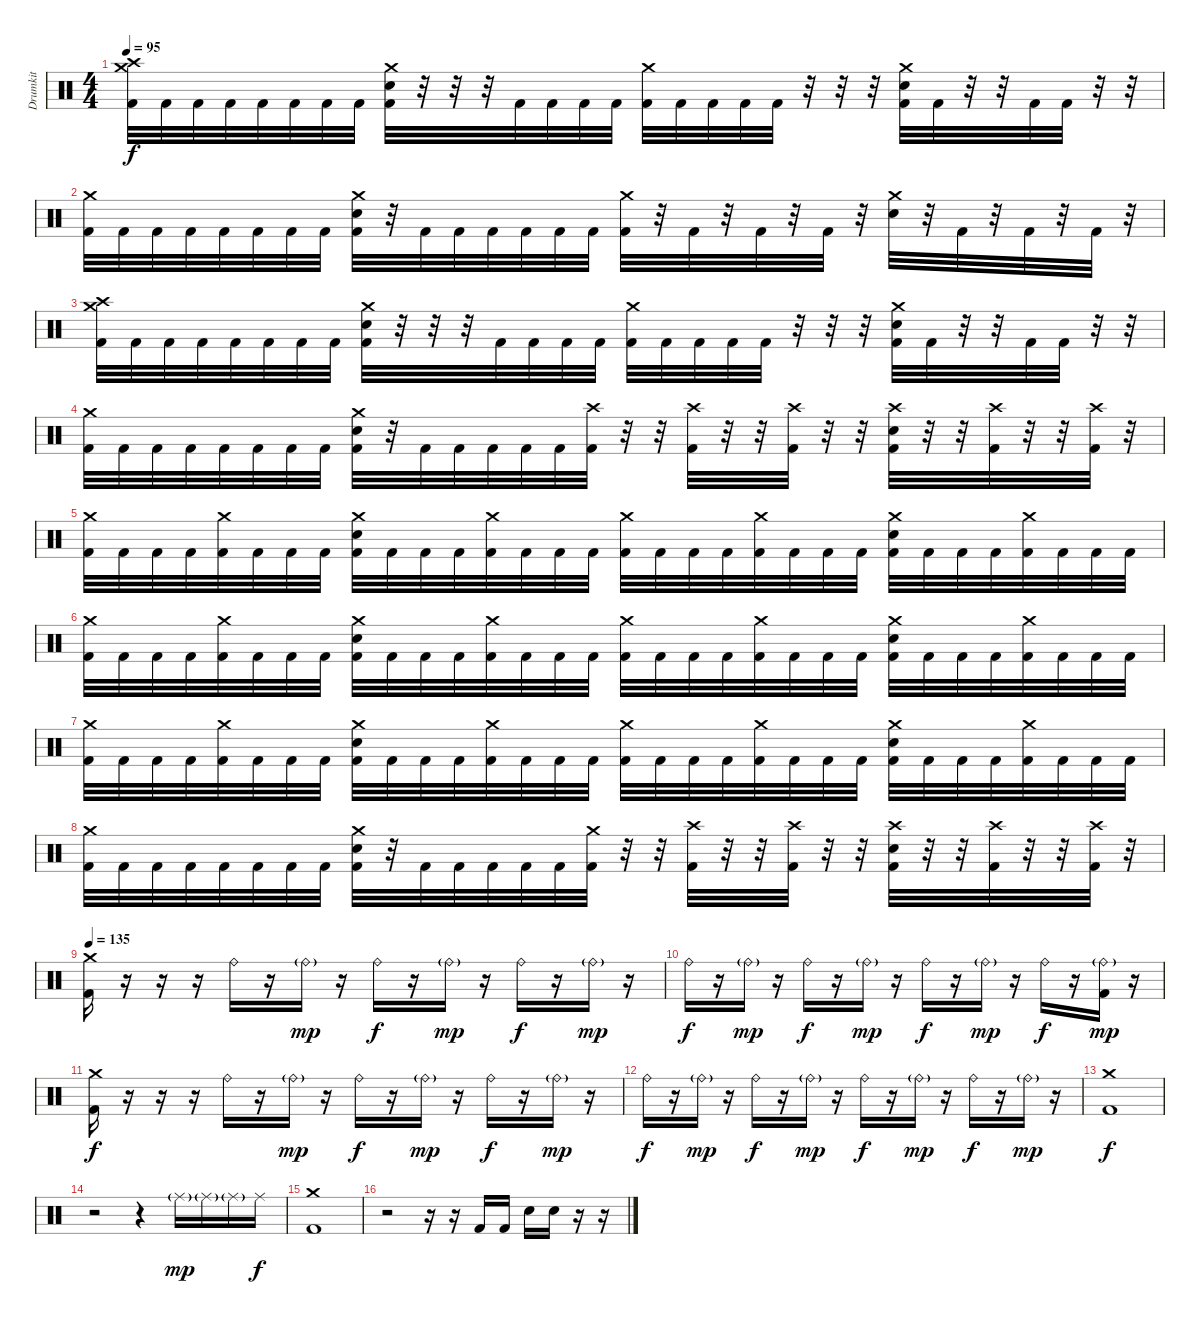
\track ("Drumkit" "Drumkit") {instrument percussion}
\staff {score}
\articulation defaults
\ts (4 4)
\tempo 95
\clef neutral
\ks c
("Crash medium (hit)" "Crash high (hit)" "Kick (hit) 2").32{dy f} "Kick (hit) 2".32 "Kick (hit) 2".32 "Kick (hit) 2".32 "Kick (hit) 2".32 "Kick (hit) 2".32 "Kick (hit) 2".32 "Kick (hit) 2".32 ("Crash medium (hit)" "Electric Snare (hit)" "Kick (hit) 2").32 r.32 r.32 r.32 "Kick (hit) 2".32 "Kick (hit) 2".32 "Kick (hit) 2".32 "Kick (hit) 2".32 ("Crash medium (hit)" "Kick (hit) 2").32 "Kick (hit) 2".32 "Kick (hit) 2".32 "Kick (hit) 2".32 "Kick (hit) 2".32 r.32 r.32 r.32 ("Crash medium (hit)" "Electric Snare (hit)" "Kick (hit) 2").32 "Kick (hit) 2".32 r.32 r.32 "Kick (hit) 2".32 "Kick (hit) 2".32 r.32 r.32 |
("Crash medium (hit)" "Kick (hit) 2").32 "Kick (hit) 2".32 "Kick (hit) 2".32 "Kick (hit) 2".32 "Kick (hit) 2".32 "Kick (hit) 2".32 "Kick (hit) 2".32 "Kick (hit) 2".32 ("Crash medium (hit)" "Electric Snare (hit)" "Kick (hit) 2").32 r.32 "Kick (hit) 2".32 "Kick (hit) 2".32 "Kick (hit) 2".32 "Kick (hit) 2".32 "Kick (hit) 2".32 "Kick (hit) 2".32 ("Crash medium (hit)" "Kick (hit) 2").32 r.32 "Kick (hit) 2".32 r.32 "Kick (hit) 2".32 r.32 "Kick (hit) 2".32 r.32 ("Crash medium (hit)" "Electric Snare (hit)").32 r.32 "Kick (hit) 2".32 r.32 "Kick (hit) 2".32 r.32 "Kick (hit) 2".32 r.32 |
("Crash medium (hit)" "Crash high (hit)" "Kick (hit) 2").32 "Kick (hit) 2".32 "Kick (hit) 2".32 "Kick (hit) 2".32 "Kick (hit) 2".32 "Kick (hit) 2".32 "Kick (hit) 2".32 "Kick (hit) 2".32 ("Crash medium (hit)" "Electric Snare (hit)" "Kick (hit) 2").32 r.32 r.32 r.32 "Kick (hit) 2".32 "Kick (hit) 2".32 "Kick (hit) 2".32 "Kick (hit) 2".32 ("Crash medium (hit)" "Kick (hit) 2").32 "Kick (hit) 2".32 "Kick (hit) 2".32 "Kick (hit) 2".32 "Kick (hit) 2".32 r.32 r.32 r.32 ("Crash medium (hit)" "Electric Snare (hit)" "Kick (hit) 2").32 "Kick (hit) 2".32 r.32 r.32 "Kick (hit) 2".32 "Kick (hit) 2".32 r.32 r.32 |
("Crash medium (hit)" "Kick (hit) 2").32 "Kick (hit) 2".32 "Kick (hit) 2".32 "Kick (hit) 2".32 "Kick (hit) 2".32 "Kick (hit) 2".32 "Kick (hit) 2".32 "Kick (hit) 2".32 ("Crash medium (hit)" "Electric Snare (hit)" "Kick (hit) 2").32 r.32 "Kick (hit) 2".32 "Kick (hit) 2".32 "Kick (hit) 2".32 "Kick (hit) 2".32 "Kick (hit) 2".32 ("Crash high (hit)" "Kick (hit) 2").32 r.32 r.32 ("Crash high (hit)" "Kick (hit) 2").32 r.32 r.32 ("Crash high (hit)" "Kick (hit) 2").32 r.32 r.32 ("Crash high (hit)" "Electric Snare (hit)" "Kick (hit) 2").32 r.32 r.32 ("Crash high (hit)" "Kick (hit) 2").32 r.32 r.32 ("Crash high (hit)" "Kick (hit) 2").32 r.32 |
("Crash medium (hit)" "Kick (hit) 2").32 "Kick (hit) 2".32 "Kick (hit) 2".32 "Kick (hit) 2".32 ("Crash medium (hit)" "Kick (hit) 2").32 "Kick (hit) 2".32 "Kick (hit) 2".32 "Kick (hit) 2".32 ("Crash medium (hit)" "Electric Snare (hit)" "Kick (hit) 2").32 "Kick (hit) 2".32 "Kick (hit) 2".32 "Kick (hit) 2".32 ("Crash medium (hit)" "Kick (hit) 2").32 "Kick (hit) 2".32 "Kick (hit) 2".32 "Kick (hit) 2".32 ("Crash medium (hit)" "Kick (hit) 2").32 "Kick (hit) 2".32 "Kick (hit) 2".32 "Kick (hit) 2".32 ("Crash medium (hit)" "Kick (hit) 2").32 "Kick (hit) 2".32 "Kick (hit) 2".32 "Kick (hit) 2".32 ("Crash medium (hit)" "Electric Snare (hit)" "Kick (hit) 2").32 "Kick (hit) 2".32 "Kick (hit) 2".32 "Kick (hit) 2".32 ("Crash medium (hit)" "Kick (hit) 2").32 "Kick (hit) 2".32 "Kick (hit) 2".32 "Kick (hit) 2".32 |
("Crash medium (hit)" "Kick (hit) 2").32 "Kick (hit) 2".32 "Kick (hit) 2".32 "Kick (hit) 2".32 ("Crash medium (hit)" "Kick (hit) 2").32 "Kick (hit) 2".32 "Kick (hit) 2".32 "Kick (hit) 2".32 ("Crash medium (hit)" "Electric Snare (hit)" "Kick (hit) 2").32 "Kick (hit) 2".32 "Kick (hit) 2".32 "Kick (hit) 2".32 ("Crash medium (hit)" "Kick (hit) 2").32 "Kick (hit) 2".32 "Kick (hit) 2".32 "Kick (hit) 2".32 ("Crash medium (hit)" "Kick (hit) 2").32 "Kick (hit) 2".32 "Kick (hit) 2".32 "Kick (hit) 2".32 ("Crash medium (hit)" "Kick (hit) 2").32 "Kick (hit) 2".32 "Kick (hit) 2".32 "Kick (hit) 2".32 ("Crash medium (hit)" "Electric Snare (hit)" "Kick (hit) 2").32 "Kick (hit) 2".32 "Kick (hit) 2".32 "Kick (hit) 2".32 ("Crash medium (hit)" "Kick (hit) 2").32 "Kick (hit) 2".32 "Kick (hit) 2".32 "Kick (hit) 2".32 |
("Crash medium (hit)" "Kick (hit) 2").32 "Kick (hit) 2".32 "Kick (hit) 2".32 "Kick (hit) 2".32 ("Crash medium (hit)" "Kick (hit) 2").32 "Kick (hit) 2".32 "Kick (hit) 2".32 "Kick (hit) 2".32 ("Crash medium (hit)" "Electric Snare (hit)" "Kick (hit) 2").32 "Kick (hit) 2".32 "Kick (hit) 2".32 "Kick (hit) 2".32 ("Crash medium (hit)" "Kick (hit) 2").32 "Kick (hit) 2".32 "Kick (hit) 2".32 "Kick (hit) 2".32 ("Crash medium (hit)" "Kick (hit) 2").32 "Kick (hit) 2".32 "Kick (hit) 2".32 "Kick (hit) 2".32 ("Crash medium (hit)" "Kick (hit) 2").32 "Kick (hit) 2".32 "Kick (hit) 2".32 "Kick (hit) 2".32 ("Crash medium (hit)" "Electric Snare (hit)" "Kick (hit) 2").32 "Kick (hit) 2".32 "Kick (hit) 2".32 "Kick (hit) 2".32 ("Crash medium (hit)" "Kick (hit) 2").32 "Kick (hit) 2".32 "Kick (hit) 2".32 "Kick (hit) 2".32 |
("Crash medium (hit)" "Kick (hit) 2").32 "Kick (hit) 2".32 "Kick (hit) 2".32 "Kick (hit) 2".32 "Kick (hit) 2".32 "Kick (hit) 2".32 "Kick (hit) 2".32 "Kick (hit) 2".32 ("Crash medium (hit)" "Electric Snare (hit)" "Kick (hit) 2").32 r.32 "Kick (hit) 2".32 "Kick (hit) 2".32 "Kick (hit) 2".32 "Kick (hit) 2".32 "Kick (hit) 2".32 ("Crash medium (hit)" "Kick (hit) 2").32 r.32 r.32 ("Crash high (hit)" "Kick (hit) 2").32 r.32 r.32 ("Crash high (hit)" "Kick (hit) 2").32 r.32 r.32 ("Crash high (hit)" "Electric Snare (hit)" "Kick (hit) 2").32 r.32 r.32 ("Crash high (hit)" "Kick (hit) 2").32 r.32 r.32 ("Crash high (hit)" "Kick (hit) 2").32 r.32 |
\tempo 135
("Crash medium (hit)" "Kick (hit) 2").16 r.16 r.16 r.16 "Ride (bell)".16 r.16 "Ride (bell)"{g}.16{dy mp} r.16 "Ride (bell)".16{dy f} r.16 "Ride (bell)"{g}.16{dy mp} r.16 "Ride (bell)".16{dy f} r.16 "Ride (bell)"{g}.16{dy mp} r.16 |
"Ride (bell)".16{dy f} r.16 "Ride (bell)"{g}.16{dy mp} r.16 "Ride (bell)".16{dy f} r.16 "Ride (bell)"{g}.16{dy mp} r.16 "Ride (bell)".16{dy f} r.16 "Ride (bell)"{g}.16{dy mp} r.16 "Ride (bell)".16{dy f} r.16 ("Ride (bell)"{g} "Kick (hit) 2").16{dy mp} r.16 |
("Crash medium (hit)" "Kick (hit) 2").16{dy f} r.16 r.16 r.16 "Ride (bell)".16 r.16 "Ride (bell)"{g}.16{dy mp} r.16 "Ride (bell)".16{dy f} r.16 "Ride (bell)"{g}.16{dy mp} r.16 "Ride (bell)".16{dy f} r.16 "Ride (bell)"{g}.16{dy mp} r.16 |
"Ride (bell)".16{dy f} r.16 "Ride (bell)"{g}.16{dy mp} r.16 "Ride (bell)".16{dy f} r.16 "Ride (bell)"{g}.16{dy mp} r.16 "Ride (bell)".16{dy f} r.16 "Ride (bell)"{g}.16{dy mp} r.16 "Ride (bell)".16{dy f} r.16 "Ride (bell)"{g}.16{dy mp} r.16 |
("Crash medium (hit)" "Kick (hit) 2").1{dy f} |
r.2 r.4 "Ride (middle)"{g}.16{dy mp} "Ride (middle)"{g}.16 "Ride (middle)"{g}.16 "Ride (middle)".16{dy f} |
("Crash medium (hit)" "Kick (hit) 2").1 |
r.2 r.16 r.16 "Kick (hit) 2".16 "Kick (hit) 2".16 "Electric Snare (hit)".16 "Electric Snare (hit)".16 r.16 r.16
